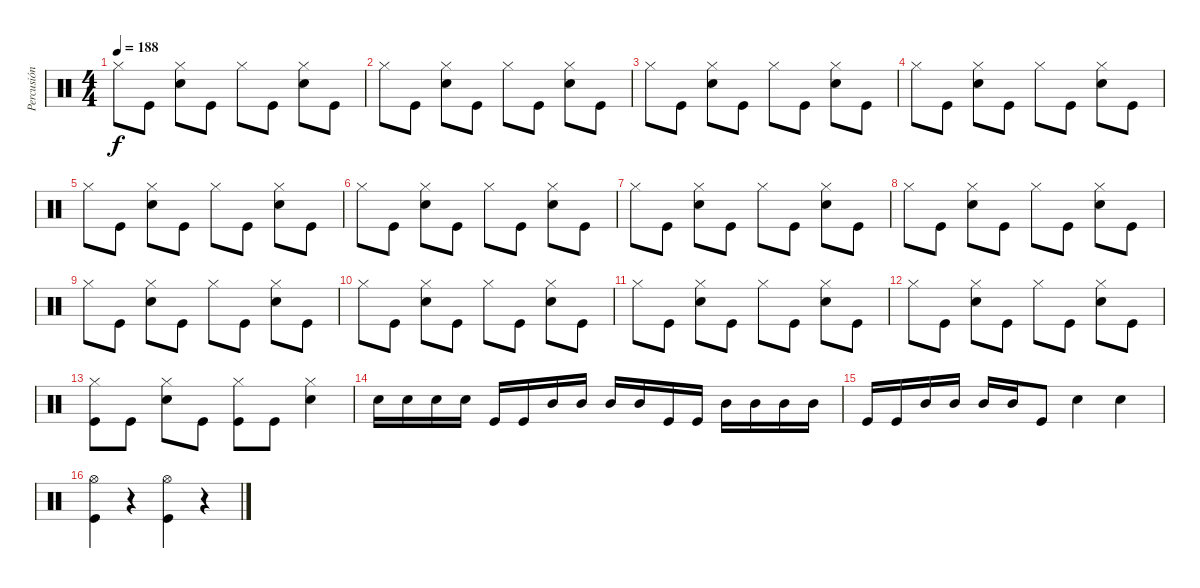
\track ("Percusión" "Percusión") {instrument percussion}
\staff {score}
\articulation defaults
\ts (4 4)
\tempo 188
\clef neutral
\ks c "Hi-Hat (closed)".8{dy f} "Kick (hit)".8
("Hi-Hat (closed)" "Snare (hit) 2").8 "Kick (hit)".8 "Hi-Hat (closed)".8 "Kick (hit)".8 ("Hi-Hat (closed)" "Snare (hit) 2").8 "Kick (hit)".8 |
"Hi-Hat (closed)".8 "Kick (hit)".8 ("Hi-Hat (closed)" "Snare (hit) 2").8 "Kick (hit)".8 "Hi-Hat (closed)".8 "Kick (hit)".8 ("Hi-Hat (closed)" "Snare (hit) 2").8 "Kick (hit)".8 |
"Hi-Hat (closed)".8 "Kick (hit)".8 ("Hi-Hat (closed)" "Snare (hit) 2").8 "Kick (hit)".8 "Hi-Hat (closed)".8 "Kick (hit)".8 ("Hi-Hat (closed)" "Snare (hit) 2").8 "Kick (hit)".8 |
"Hi-Hat (closed)".8 "Kick (hit)".8 ("Hi-Hat (closed)" "Snare (hit) 2").8 "Kick (hit)".8 "Hi-Hat (closed)".8 "Kick (hit)".8 ("Hi-Hat (closed)" "Snare (hit) 2").8 "Kick (hit)".8 |
"Hi-Hat (closed)".8 "Kick (hit)".8 ("Hi-Hat (closed)" "Snare (hit) 2").8 "Kick (hit)".8 "Hi-Hat (closed)".8 "Kick (hit)".8 ("Hi-Hat (closed)" "Snare (hit) 2").8 "Kick (hit)".8 |
"Hi-Hat (closed)".8 "Kick (hit)".8 ("Hi-Hat (closed)" "Snare (hit) 2").8 "Kick (hit)".8 "Hi-Hat (closed)".8 "Kick (hit)".8 ("Hi-Hat (closed)" "Snare (hit) 2").8 "Kick (hit)".8 |
"Hi-Hat (closed)".8 "Kick (hit)".8 ("Hi-Hat (closed)" "Snare (hit) 2").8 "Kick (hit)".8 "Hi-Hat (closed)".8 "Kick (hit)".8 ("Hi-Hat (closed)" "Snare (hit) 2").8 "Kick (hit)".8 |
"Hi-Hat (closed)".8 "Kick (hit)".8 ("Hi-Hat (closed)" "Snare (hit) 2").8 "Kick (hit)".8 "Hi-Hat (closed)".8 "Kick (hit)".8 ("Hi-Hat (closed)" "Snare (hit) 2").8 "Kick (hit)".8 |
"Hi-Hat (closed)".8 "Kick (hit)".8 ("Hi-Hat (closed)" "Snare (hit) 2").8 "Kick (hit)".8 "Hi-Hat (closed)".8 "Kick (hit)".8 ("Hi-Hat (closed)" "Snare (hit) 2").8 "Kick (hit)".8 |
"Hi-Hat (closed)".8 "Kick (hit)".8 ("Hi-Hat (closed)" "Snare (hit) 2").8 "Kick (hit)".8 "Hi-Hat (closed)".8 "Kick (hit)".8 ("Hi-Hat (closed)" "Snare (hit) 2").8 "Kick (hit)".8 |
"Hi-Hat (closed)".8 "Kick (hit)".8 ("Hi-Hat (closed)" "Snare (hit) 2").8 "Kick (hit)".8 "Hi-Hat (closed)".8 "Kick (hit)".8 ("Hi-Hat (closed)" "Snare (hit) 2").8 "Kick (hit)".8 |
"Hi-Hat (closed)".8 "Kick (hit)".8 ("Hi-Hat (closed)" "Snare (hit) 2").8 "Kick (hit)".8 "Hi-Hat (closed)".8 "Kick (hit)".8 ("Hi-Hat (closed)" "Snare (hit) 2").8 "Kick (hit)".8 |
("Hi-Hat (closed)" "Kick (hit)").8 "Kick (hit)".8 ("Hi-Hat (closed)" "Snare (hit) 2").8 "Kick (hit)".8 ("Hi-Hat (closed)" "Kick (hit)").8 "Kick (hit)".8 ("Hi-Hat (closed)" "Snare (hit) 2").4 |
"Snare (hit) 2".16 "Snare (hit) 2".16 "Snare (hit) 2".16 "Snare (hit) 2".16 "Kick (hit)".16 "Kick (hit)".16 "Mid Tom (hit)".16 "Mid Tom (hit)".16 "Mid Tom (hit)".16 "Mid Tom (hit)".16 "Kick (hit)".16 "Kick (hit)".16 "Mid Tom (hit)".16 "Mid Tom (hit)".16 "Mid Tom (hit)".16 "Mid Tom (hit)".16 |
"Kick (hit)".16 "Kick (hit)".16 "Mid Tom (hit)".16 "Mid Tom (hit)".16 "Mid Tom (hit)".16 "Mid Tom (hit)".16 "Kick (hit)".8 "Snare (hit) 2".4 "Snare (hit) 2".4 |
("Hi-Hat (open)" "Kick (hit)").4 r.4 ("Hi-Hat (open)" "Kick (hit)").4 r.4
